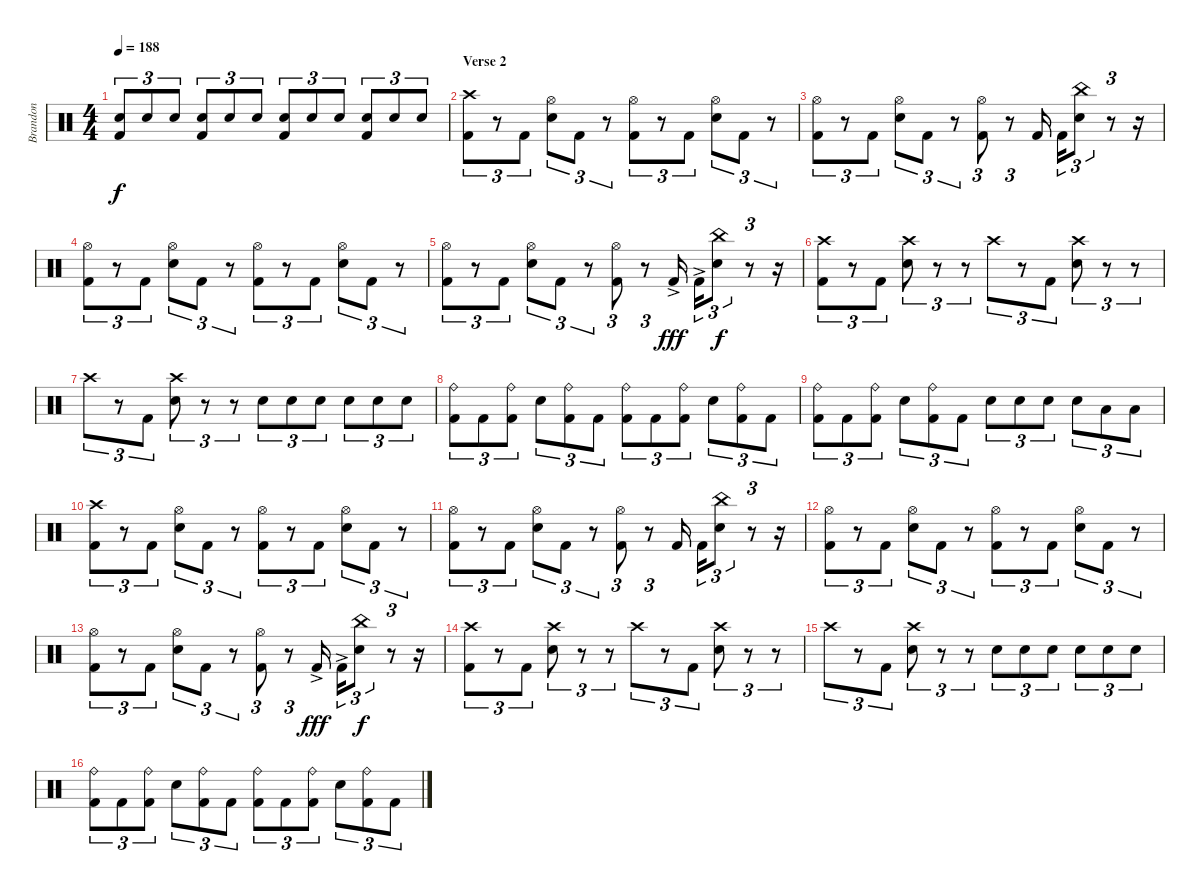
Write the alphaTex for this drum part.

\track ("Brandon" "Brandon") {instrument percussion}
\staff {score}
\articulation defaults
\ts (4 4)
\tempo 188
\clef neutral
\ks c
("Electric Snare (hit)" "Kick (hit) 2").8{tu (3 2) dy f} "Electric Snare (hit)".8{tu (3 2)} "Electric Snare (hit)".8{tu (3 2)} ("Electric Snare (hit)" "Kick (hit) 2").8{tu (3 2)} "Electric Snare (hit)".8{tu (3 2)} "Electric Snare (hit)".8{tu (3 2)} ("Electric Snare (hit)" "Kick (hit) 2").8{tu (3 2)} "Electric Snare (hit)".8{tu (3 2)} "Electric Snare (hit)".8{tu (3 2)} ("Electric Snare (hit)" "Kick (hit) 2").8{tu (3 2)} "Electric Snare (hit)".8{tu (3 2)} "Electric Snare (hit)".8{tu (3 2)} |
\section ("" "Verse 2")
("Crash high (hit)" "Kick (hit) 2").8{tu (3 2)} r.8{tu (3 2)} "Kick (hit) 2".8{tu (3 2)} ("Hi-Hat (open)" "Electric Snare (hit)").8{tu (3 2)} "Kick (hit) 2".8{tu (3 2)} r.8{tu (3 2)} ("Hi-Hat (open)" "Kick (hit) 2").8{tu (3 2)} r.8{tu (3 2)} "Kick (hit) 2".8{tu (3 2)} ("Hi-Hat (open)" "Electric Snare (hit)").8{tu (3 2)} "Kick (hit) 2".8{tu (3 2)} r.8{tu (3 2)} |
("Hi-Hat (open)" "Kick (hit) 2").8{tu (3 2)} r.8{tu (3 2)} "Kick (hit) 2".8{tu (3 2)} ("Hi-Hat (open)" "Electric Snare (hit)").8{tu (3 2)} "Kick (hit) 2".8{tu (3 2)} r.8{tu (3 2)} ("Hi-Hat (open)" "Kick (hit) 2").8{tu (3 2)} r.8{tu (3 2)} "Kick (hit) 2".16 "Kick (hit) 2".16{tu (3 2)} ("China (hit)" "Electric Snare (hit)").8{tu (3 2)} r.8{tu (3 2)} r.16 |
("Hi-Hat (open)" "Kick (hit) 2").8{tu (3 2)} r.8{tu (3 2)} "Kick (hit) 2".8{tu (3 2)} ("Hi-Hat (open)" "Electric Snare (hit)").8{tu (3 2)} "Kick (hit) 2".8{tu (3 2)} r.8{tu (3 2)} ("Hi-Hat (open)" "Kick (hit) 2").8{tu (3 2)} r.8{tu (3 2)} "Kick (hit) 2".8{tu (3 2)} ("Hi-Hat (open)" "Electric Snare (hit)").8{tu (3 2)} "Kick (hit) 2".8{tu (3 2)} r.8{tu (3 2)} |
("Hi-Hat (open)" "Kick (hit) 2").8{tu (3 2)} r.8{tu (3 2)} "Kick (hit) 2".8{tu (3 2)} ("Hi-Hat (open)" "Electric Snare (hit)").8{tu (3 2)} "Kick (hit) 2".8{tu (3 2)} r.8{tu (3 2)} ("Hi-Hat (open)" "Kick (hit) 2").8{tu (3 2)} r.8{tu (3 2)} "Kick (hit) 2"{ac}.16{dy fff} "Kick (hit) 2"{ac}.16{tu (3 2)} ("China (hit)" "Electric Snare (hit)").8{tu (3 2) dy f} r.8{tu (3 2)} r.16 |
("Crash high (hit)" "Kick (hit) 2").8{tu (3 2)} r.8{tu (3 2)} "Kick (hit) 2".8{tu (3 2)} ("Crash high (hit)" "Electric Snare (hit)").8{tu (3 2)} r.8{tu (3 2)} r.8{tu (3 2)} "Crash high (hit)".8{tu (3 2)} r.8{tu (3 2)} "Kick (hit) 2".8{tu (3 2)} ("Crash high (hit)" "Electric Snare (hit)").8{tu (3 2)} r.8{tu (3 2)} r.8{tu (3 2)} |
"Crash high (hit)".8{tu (3 2)} r.8{tu (3 2)} "Kick (hit) 2".8{tu (3 2)} ("Crash high (hit)" "Electric Snare (hit)").8{tu (3 2)} r.8{tu (3 2)} r.8{tu (3 2)} "Electric Snare (hit)".8{tu (3 2)} "Electric Snare (hit)".8{tu (3 2)} "Electric Snare (hit)".8{tu (3 2)} "Electric Snare (hit)".8{tu (3 2)} "Electric Snare (hit)".8{tu (3 2)} "Electric Snare (hit)".8{tu (3 2)} |
("Ride (bell)" "Kick (hit) 2").8{tu (3 2)} "Kick (hit) 2".8{tu (3 2)} ("Ride (bell)" "Kick (hit) 2").8{tu (3 2)} "Electric Snare (hit)".8{tu (3 2)} ("Ride (bell)" "Kick (hit) 2").8{tu (3 2)} "Kick (hit) 2".8{tu (3 2)} ("Ride (bell)" "Kick (hit) 2").8{tu (3 2)} "Kick (hit) 2".8{tu (3 2)} ("Ride (bell)" "Kick (hit) 2").8{tu (3 2)} "Electric Snare (hit)".8{tu (3 2)} ("Ride (bell)" "Kick (hit) 2").8{tu (3 2)} "Kick (hit) 2".8{tu (3 2)} |
("Ride (bell)" "Kick (hit) 2").8{tu (3 2)} "Kick (hit) 2".8{tu (3 2)} ("Ride (bell)" "Kick (hit) 2").8{tu (3 2)} "Electric Snare (hit)".8{tu (3 2)} ("Ride (bell)" "Kick (hit) 2").8{tu (3 2)} "Kick (hit) 2".8{tu (3 2)} "Electric Snare (hit)".8{tu (3 2)} "Electric Snare (hit)".8{tu (3 2)} "Electric Snare (hit)".8{tu (3 2)} "Electric Snare (hit)".8{tu (3 2)} "Low Tom (hit)".8{tu (3 2)} "Low Tom (hit)".8{tu (3 2)} |
("Crash high (hit)" "Kick (hit) 2").8{tu (3 2)} r.8{tu (3 2)} "Kick (hit) 2".8{tu (3 2)} ("Hi-Hat (open)" "Electric Snare (hit)").8{tu (3 2)} "Kick (hit) 2".8{tu (3 2)} r.8{tu (3 2)} ("Hi-Hat (open)" "Kick (hit) 2").8{tu (3 2)} r.8{tu (3 2)} "Kick (hit) 2".8{tu (3 2)} ("Hi-Hat (open)" "Electric Snare (hit)").8{tu (3 2)} "Kick (hit) 2".8{tu (3 2)} r.8{tu (3 2)} |
("Hi-Hat (open)" "Kick (hit) 2").8{tu (3 2)} r.8{tu (3 2)} "Kick (hit) 2".8{tu (3 2)} ("Hi-Hat (open)" "Electric Snare (hit)").8{tu (3 2)} "Kick (hit) 2".8{tu (3 2)} r.8{tu (3 2)} ("Hi-Hat (open)" "Kick (hit) 2").8{tu (3 2)} r.8{tu (3 2)} "Kick (hit) 2".16 "Kick (hit) 2".16{tu (3 2)} ("China (hit)" "Electric Snare (hit)").8{tu (3 2)} r.8{tu (3 2)} r.16 |
("Hi-Hat (open)" "Kick (hit) 2").8{tu (3 2)} r.8{tu (3 2)} "Kick (hit) 2".8{tu (3 2)} ("Hi-Hat (open)" "Electric Snare (hit)").8{tu (3 2)} "Kick (hit) 2".8{tu (3 2)} r.8{tu (3 2)} ("Hi-Hat (open)" "Kick (hit) 2").8{tu (3 2)} r.8{tu (3 2)} "Kick (hit) 2".8{tu (3 2)} ("Hi-Hat (open)" "Electric Snare (hit)").8{tu (3 2)} "Kick (hit) 2".8{tu (3 2)} r.8{tu (3 2)} |
("Hi-Hat (open)" "Kick (hit) 2").8{tu (3 2)} r.8{tu (3 2)} "Kick (hit) 2".8{tu (3 2)} ("Hi-Hat (open)" "Electric Snare (hit)").8{tu (3 2)} "Kick (hit) 2".8{tu (3 2)} r.8{tu (3 2)} ("Hi-Hat (open)" "Kick (hit) 2").8{tu (3 2)} r.8{tu (3 2)} "Kick (hit) 2"{ac}.16{dy fff} "Kick (hit) 2"{ac}.16{tu (3 2)} ("China (hit)" "Electric Snare (hit)").8{tu (3 2) dy f} r.8{tu (3 2)} r.16 |
("Crash high (hit)" "Kick (hit) 2").8{tu (3 2)} r.8{tu (3 2)} "Kick (hit) 2".8{tu (3 2)} ("Crash high (hit)" "Electric Snare (hit)").8{tu (3 2)} r.8{tu (3 2)} r.8{tu (3 2)} "Crash high (hit)".8{tu (3 2)} r.8{tu (3 2)} "Kick (hit) 2".8{tu (3 2)} ("Crash high (hit)" "Electric Snare (hit)").8{tu (3 2)} r.8{tu (3 2)} r.8{tu (3 2)} |
"Crash high (hit)".8{tu (3 2)} r.8{tu (3 2)} "Kick (hit) 2".8{tu (3 2)} ("Crash high (hit)" "Electric Snare (hit)").8{tu (3 2)} r.8{tu (3 2)} r.8{tu (3 2)} "Electric Snare (hit)".8{tu (3 2)} "Electric Snare (hit)".8{tu (3 2)} "Electric Snare (hit)".8{tu (3 2)} "Electric Snare (hit)".8{tu (3 2)} "Electric Snare (hit)".8{tu (3 2)} "Electric Snare (hit)".8{tu (3 2)} |
("Ride (bell)" "Kick (hit) 2").8{tu (3 2)} "Kick (hit) 2".8{tu (3 2)} ("Ride (bell)" "Kick (hit) 2").8{tu (3 2)} "Electric Snare (hit)".8{tu (3 2)} ("Ride (bell)" "Kick (hit) 2").8{tu (3 2)} "Kick (hit) 2".8{tu (3 2)} ("Ride (bell)" "Kick (hit) 2").8{tu (3 2)} "Kick (hit) 2".8{tu (3 2)} ("Ride (bell)" "Kick (hit) 2").8{tu (3 2)} "Electric Snare (hit)".8{tu (3 2)} ("Ride (bell)" "Kick (hit) 2").8{tu (3 2)} "Kick (hit) 2".8{tu (3 2)}
